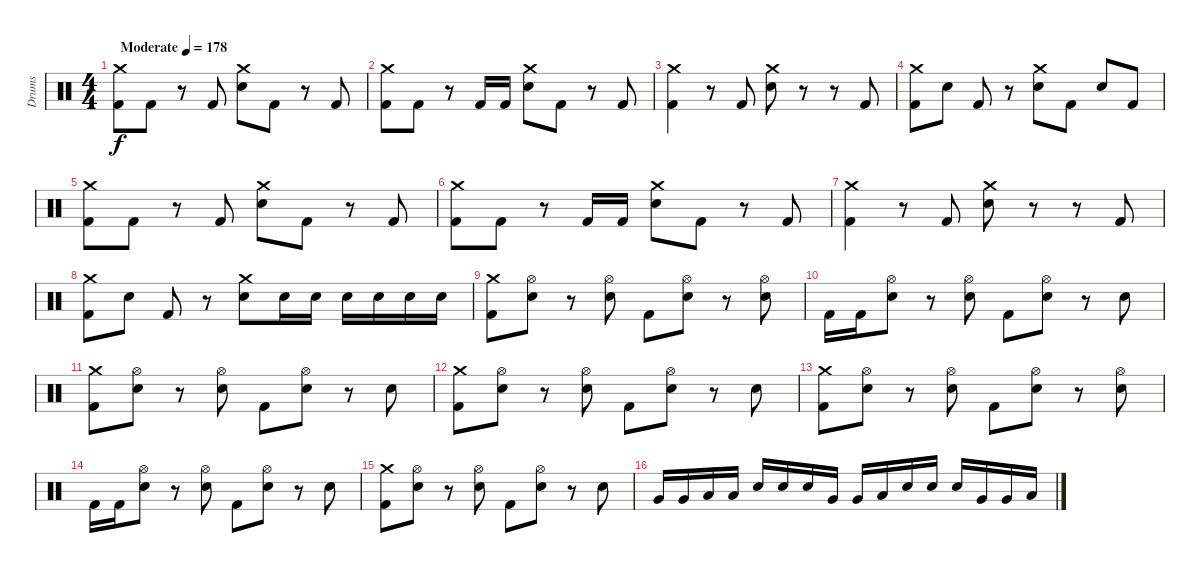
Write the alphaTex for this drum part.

\track ("Drums" "Drums") {instrument percussion}
\staff
\articulation defaults
\ts (4 4)
\tempo (178 "Moderate")
\clef neutral
\ks c
("Crash medium (hit)" "Kick (hit) 2").8{dy f} "Kick (hit) 2".8 r.8 "Kick (hit) 2".8 ("Crash medium (hit)" "Electric Snare (hit)").8 "Kick (hit) 2".8 r.8 "Kick (hit) 2".8 |
("Crash medium (hit)" "Kick (hit) 2").8 "Kick (hit) 2".8 r.8 "Kick (hit) 2".16 "Kick (hit) 2".16 ("Crash medium (hit)" "Electric Snare (hit)").8 "Kick (hit) 2".8 r.8 "Kick (hit) 2".8 |
("Crash medium (hit)" "Kick (hit) 2").4 r.8 "Kick (hit) 2".8 ("Crash medium (hit)" "Electric Snare (hit)").8 r.8 r.8 "Kick (hit) 2".8 |
("Crash medium (hit)" "Kick (hit) 2").8 "Electric Snare (hit)".8 "Kick (hit) 2".8 r.8 ("Crash medium (hit)" "Electric Snare (hit)").8 "Kick (hit) 2".8 "Electric Snare (hit)".8 "Kick (hit) 2".8 |
("Crash medium (hit)" "Kick (hit) 2").8 "Kick (hit) 2".8 r.8 "Kick (hit) 2".8 ("Crash medium (hit)" "Electric Snare (hit)").8 "Kick (hit) 2".8 r.8 "Kick (hit) 2".8 |
("Crash medium (hit)" "Kick (hit) 2").8 "Kick (hit) 2".8 r.8 "Kick (hit) 2".16 "Kick (hit) 2".16 ("Crash medium (hit)" "Electric Snare (hit)").8 "Kick (hit) 2".8 r.8 "Kick (hit) 2".8 |
("Crash medium (hit)" "Kick (hit) 2").4 r.8 "Kick (hit) 2".8 ("Crash medium (hit)" "Electric Snare (hit)").8 r.8 r.8 "Kick (hit) 2".8 |
("Crash medium (hit)" "Kick (hit) 2").8 "Electric Snare (hit)".8 "Kick (hit) 2".8 r.8 ("Crash medium (hit)" "Electric Snare (hit)").8 "Electric Snare (hit)".16 "Electric Snare (hit)".16 "Electric Snare (hit)".16 "Electric Snare (hit)".16 "Electric Snare (hit)".16 "Electric Snare (hit)".16 |
("Crash medium (hit)" "Kick (hit) 2").8 ("Hi-Hat (open)" "Electric Snare (hit)").8 r.8 ("Hi-Hat (open)" "Electric Snare (hit)").8 "Kick (hit) 2".8 ("Hi-Hat (open)" "Electric Snare (hit)").8 r.8 ("Hi-Hat (open)" "Electric Snare (hit)").8 |
"Kick (hit) 2".16 "Kick (hit) 2".16 ("Hi-Hat (open)" "Electric Snare (hit)").8 r.8 ("Hi-Hat (open)" "Electric Snare (hit)").8 "Kick (hit) 2".8 ("Hi-Hat (open)" "Electric Snare (hit)").8 r.8 "Electric Snare (hit)".8 |
("Crash medium (hit)" "Kick (hit) 2").8 ("Hi-Hat (open)" "Electric Snare (hit)").8 r.8 ("Hi-Hat (open)" "Electric Snare (hit)").8 "Kick (hit) 2".8 ("Hi-Hat (open)" "Electric Snare (hit)").8 r.8 "Electric Snare (hit)".8 |
("Crash medium (hit)" "Kick (hit) 2").8 ("Hi-Hat (open)" "Electric Snare (hit)").8 r.8 ("Hi-Hat (open)" "Electric Snare (hit)").8 "Kick (hit) 2".8 ("Hi-Hat (open)" "Electric Snare (hit)").8 r.8 "Electric Snare (hit)".8 |
("Crash medium (hit)" "Kick (hit) 2").8 ("Hi-Hat (open)" "Electric Snare (hit)").8 r.8 ("Hi-Hat (open)" "Electric Snare (hit)").8 "Kick (hit) 2".8 ("Hi-Hat (open)" "Electric Snare (hit)").8 r.8 ("Hi-Hat (open)" "Electric Snare (hit)").8 |
"Kick (hit) 2".16 "Kick (hit) 2".16 ("Hi-Hat (open)" "Electric Snare (hit)").8 r.8 ("Hi-Hat (open)" "Electric Snare (hit)").8 "Kick (hit) 2".8 ("Hi-Hat (open)" "Electric Snare (hit)").8 r.8 "Electric Snare (hit)".8 |
("Crash medium (hit)" "Kick (hit) 2").8 ("Hi-Hat (open)" "Electric Snare (hit)").8 r.8 ("Hi-Hat (open)" "Electric Snare (hit)").8 "Kick (hit) 2".8 ("Hi-Hat (open)" "Electric Snare (hit)").8 r.8 "Electric Snare (hit)".8 |
"Very Low Tom (hit)".16 "Very Low Tom (hit)".16 "Low Floor Tom (hit)".16 "Low Floor Tom (hit)".16 "Electric Snare (hit)".16 "Electric Snare (hit)".16 "Electric Snare (hit)".16 "Very Low Tom (hit)".16 "Very Low Tom (hit)".16 "Low Floor Tom (hit)".16 "Electric Snare (hit)".16 "Electric Snare (hit)".16 "Electric Snare (hit)".16 "Very Low Tom (hit)".16 "Very Low Tom (hit)".16 "Low Floor Tom (hit)".16
